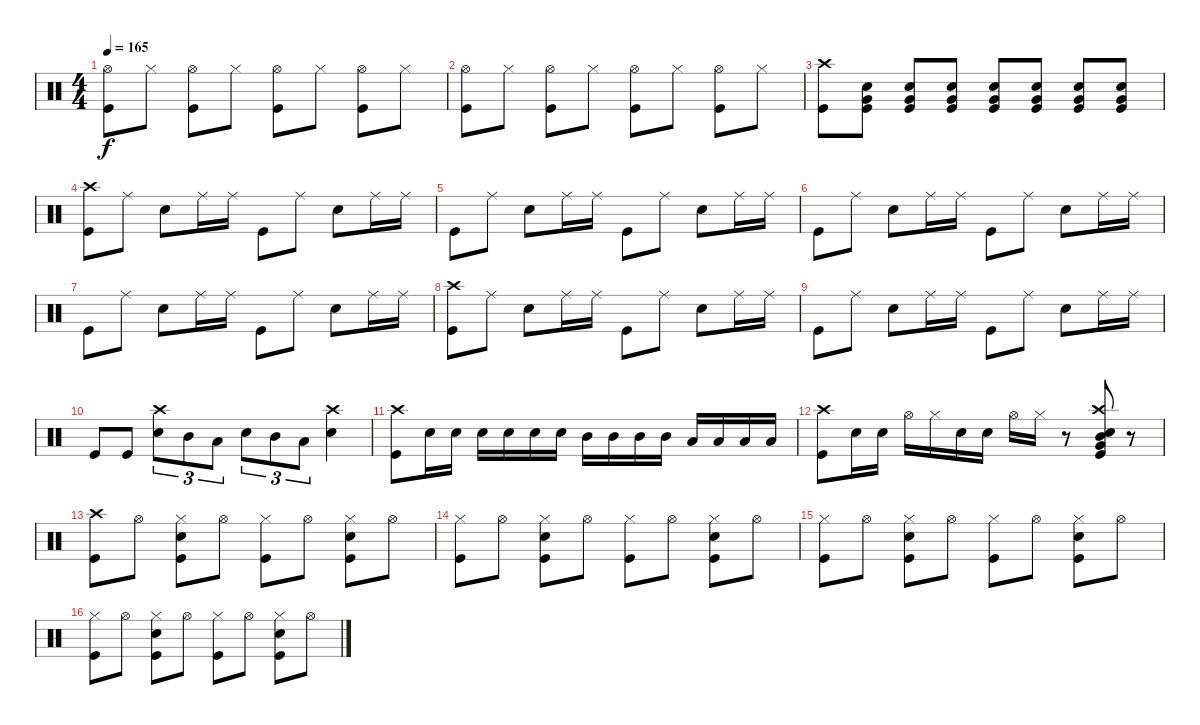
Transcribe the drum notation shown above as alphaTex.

\track "" {instrument percussion}
\staff {score}
\articulation defaults
\ts (4 4)
\tempo 165
\clef neutral
\ks c
("Hi-Hat (open)" "Kick (hit)").8{dy f} "Hi-Hat (closed)".8 ("Hi-Hat (open)" "Kick (hit)").8 "Hi-Hat (closed)".8 ("Hi-Hat (open)" "Kick (hit)").8 "Hi-Hat (closed)".8 ("Hi-Hat (open)" "Kick (hit)").8 "Hi-Hat (closed)".8 |
("Hi-Hat (open)" "Kick (hit)").8 "Hi-Hat (closed)".8 ("Hi-Hat (open)" "Kick (hit)").8 "Hi-Hat (closed)".8 ("Hi-Hat (open)" "Kick (hit)").8 "Hi-Hat (closed)".8 ("Hi-Hat (open)" "Kick (hit)").8 "Hi-Hat (closed)".8 |
("Crash high (hit)" "Kick (hit)").8 ("Very Low Tom (hit)" "Electric Snare (hit)" "Kick (hit)").8 ("Very Low Tom (hit)" "Electric Snare (hit)" "Kick (hit)").8 ("Very Low Tom (hit)" "Electric Snare (hit)" "Kick (hit)").8 ("Very Low Tom (hit)" "Electric Snare (hit)" "Kick (hit)").8 ("Very Low Tom (hit)" "Electric Snare (hit)" "Kick (hit)").8 ("Very Low Tom (hit)" "Electric Snare (hit)" "Kick (hit)").8 ("Very Low Tom (hit)" "Electric Snare (hit)" "Kick (hit)").8 |
("Crash high (hit)" "Kick (hit)").8 "Ride (middle)".8 "Electric Snare (hit)".8 "Ride (middle)".16 "Ride (middle)".16 "Kick (hit)".8 "Ride (middle)".8 "Electric Snare (hit)".8 "Ride (middle)".16 "Ride (middle)".16 |
"Kick (hit)".8 "Ride (middle)".8 "Electric Snare (hit)".8 "Ride (middle)".16 "Ride (middle)".16 "Kick (hit)".8 "Ride (middle)".8 "Electric Snare (hit)".8 "Ride (middle)".16 "Ride (middle)".16 |
"Kick (hit)".8 "Ride (middle)".8 "Electric Snare (hit)".8 "Ride (middle)".16 "Ride (middle)".16 "Kick (hit)".8 "Ride (middle)".8 "Electric Snare (hit)".8 "Ride (middle)".16 "Ride (middle)".16 |
"Kick (hit)".8 "Ride (middle)".8 "Electric Snare (hit)".8 "Ride (middle)".16 "Ride (middle)".16 "Kick (hit)".8 "Ride (middle)".8 "Electric Snare (hit)".8 "Ride (middle)".16 "Ride (middle)".16 |
("Crash high (hit)" "Kick (hit)").8 "Ride (middle)".8 "Electric Snare (hit)".8 "Ride (middle)".16 "Ride (middle)".16 "Kick (hit)".8 "Ride (middle)".8 "Electric Snare (hit)".8 "Ride (middle)".16 "Ride (middle)".16 |
"Kick (hit)".8 "Ride (middle)".8 "Electric Snare (hit)".8 "Ride (middle)".16 "Ride (middle)".16 "Kick (hit)".8 "Ride (middle)".8 "Electric Snare (hit)".8 "Ride (middle)".16 "Ride (middle)".16 |
"Kick (hit)".8 "Kick (hit)".8 ("Crash high (hit)" "Electric Snare (hit)").8{tu (3 2)} "Mid Tom (hit)".8{tu (3 2)} "Low Tom (hit)".8{tu (3 2)} "Electric Snare (hit)".8{tu (3 2)} "Mid Tom (hit)".8{tu (3 2)} "Low Tom (hit)".8{tu (3 2)} ("Crash high (hit)" "Electric Snare (hit)").4 |
("Crash high (hit)" "Kick (hit)").8 "Electric Snare (hit)".16 "Electric Snare (hit)".16 "Electric Snare (hit)".16 "Electric Snare (hit)".16 "Electric Snare (hit)".16 "Electric Snare (hit)".16 "Mid Tom (hit)".16 "Mid Tom (hit)".16 "Mid Tom (hit)".16 "Mid Tom (hit)".16 "Low Tom (hit)".16 "Low Tom (hit)".16 "Low Tom (hit)".16 "Low Tom (hit)".16 |
("Crash high (hit)" "Kick (hit)").8 "Electric Snare (hit)".16 "Electric Snare (hit)".16 "Hi-Hat (open)".16 "Hi-Hat (closed)".16 "Electric Snare (hit)".16 "Electric Snare (hit)".16 "Hi-Hat (open)".16 "Hi-Hat (closed)".16 r.8 ("Crash high (hit)" "Mid Tom (hit)" "Very Low Tom (hit)" "Electric Snare (hit)" "Kick (hit)").8 r.8 |
("Crash high (hit)" "Kick (hit)").8 "Hi-Hat (open)".8 ("Hi-Hat (closed)" "Electric Snare (hit)" "Kick (hit)").8 "Hi-Hat (open)".8 ("Hi-Hat (closed)" "Kick (hit)").8 "Hi-Hat (open)".8 ("Hi-Hat (closed)" "Electric Snare (hit)" "Kick (hit)").8 "Hi-Hat (open)".8 |
("Hi-Hat (closed)" "Kick (hit)").8 "Hi-Hat (open)".8 ("Hi-Hat (closed)" "Electric Snare (hit)" "Kick (hit)").8 "Hi-Hat (open)".8 ("Hi-Hat (closed)" "Kick (hit)").8 "Hi-Hat (open)".8 ("Hi-Hat (closed)" "Electric Snare (hit)" "Kick (hit)").8 "Hi-Hat (open)".8 |
("Hi-Hat (closed)" "Kick (hit)").8 "Hi-Hat (open)".8 ("Hi-Hat (closed)" "Electric Snare (hit)" "Kick (hit)").8 "Hi-Hat (open)".8 ("Hi-Hat (closed)" "Kick (hit)").8 "Hi-Hat (open)".8 ("Hi-Hat (closed)" "Electric Snare (hit)" "Kick (hit)").8 "Hi-Hat (open)".8 |
("Hi-Hat (closed)" "Kick (hit)").8 "Hi-Hat (open)".8 ("Hi-Hat (closed)" "Electric Snare (hit)" "Kick (hit)").8 "Hi-Hat (open)".8 ("Hi-Hat (closed)" "Kick (hit)").8 "Hi-Hat (open)".8 ("Hi-Hat (closed)" "Electric Snare (hit)" "Kick (hit)").8 "Hi-Hat (open)".8
